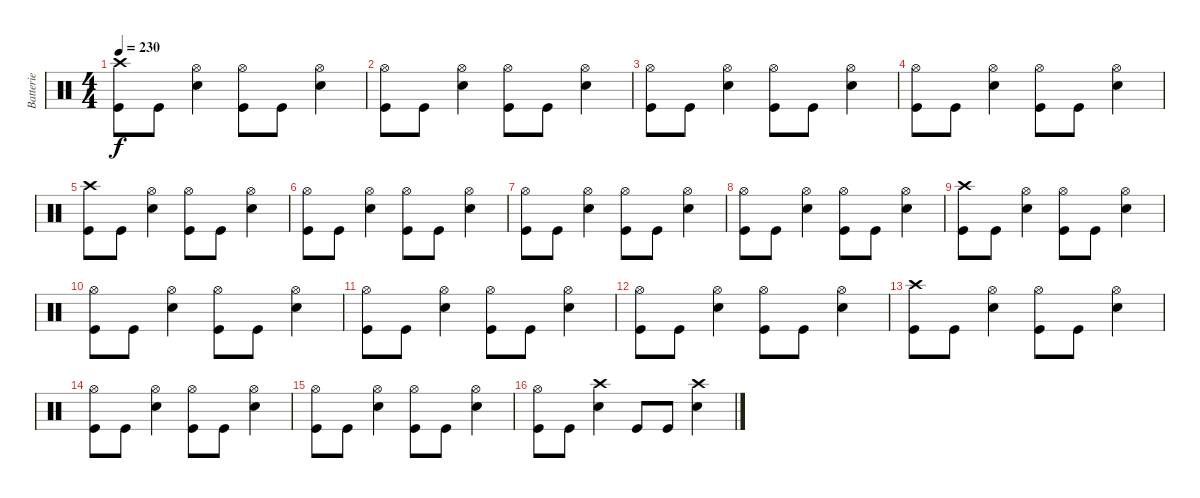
\track ("Batterie" "Batterie") {instrument percussion}
\staff {score}
\articulation defaults
\ts (4 4)
\tempo 230
\clef neutral
\ks c
("Crash high (hit)" "Kick (hit)").8{dy f} "Kick (hit)".8 ("Hi-Hat (open)" "Snare (hit) 2").4 ("Hi-Hat (open)" "Kick (hit)").8 "Kick (hit)".8 ("Hi-Hat (open)" "Snare (hit) 2").4 |
("Hi-Hat (open)" "Kick (hit)").8 "Kick (hit)".8 ("Hi-Hat (open)" "Snare (hit) 2").4 ("Hi-Hat (open)" "Kick (hit)").8 "Kick (hit)".8 ("Hi-Hat (open)" "Snare (hit) 2").4 |
("Hi-Hat (open)" "Kick (hit)").8 "Kick (hit)".8 ("Hi-Hat (open)" "Snare (hit) 2").4 ("Hi-Hat (open)" "Kick (hit)").8 "Kick (hit)".8 ("Hi-Hat (open)" "Snare (hit) 2").4 |
("Hi-Hat (open)" "Kick (hit)").8 "Kick (hit)".8 ("Hi-Hat (open)" "Snare (hit) 2").4 ("Hi-Hat (open)" "Kick (hit)").8 "Kick (hit)".8 ("Hi-Hat (open)" "Snare (hit) 2").4 |
("Crash high (hit)" "Kick (hit)").8 "Kick (hit)".8 ("Hi-Hat (open)" "Snare (hit) 2").4 ("Hi-Hat (open)" "Kick (hit)").8 "Kick (hit)".8 ("Hi-Hat (open)" "Snare (hit) 2").4 |
("Hi-Hat (open)" "Kick (hit)").8 "Kick (hit)".8 ("Hi-Hat (open)" "Snare (hit) 2").4 ("Hi-Hat (open)" "Kick (hit)").8 "Kick (hit)".8 ("Hi-Hat (open)" "Snare (hit) 2").4 |
("Hi-Hat (open)" "Kick (hit)").8 "Kick (hit)".8 ("Hi-Hat (open)" "Snare (hit) 2").4 ("Hi-Hat (open)" "Kick (hit)").8 "Kick (hit)".8 ("Hi-Hat (open)" "Snare (hit) 2").4 |
("Hi-Hat (open)" "Kick (hit)").8 "Kick (hit)".8 ("Hi-Hat (open)" "Snare (hit) 2").4 ("Hi-Hat (open)" "Kick (hit)").8 "Kick (hit)".8 ("Hi-Hat (open)" "Snare (hit) 2").4 |
("Crash high (hit)" "Kick (hit)").8 "Kick (hit)".8 ("Hi-Hat (open)" "Snare (hit) 2").4 ("Hi-Hat (open)" "Kick (hit)").8 "Kick (hit)".8 ("Hi-Hat (open)" "Snare (hit) 2").4 |
("Hi-Hat (open)" "Kick (hit)").8 "Kick (hit)".8 ("Hi-Hat (open)" "Snare (hit) 2").4 ("Hi-Hat (open)" "Kick (hit)").8 "Kick (hit)".8 ("Hi-Hat (open)" "Snare (hit) 2").4 |
("Hi-Hat (open)" "Kick (hit)").8 "Kick (hit)".8 ("Hi-Hat (open)" "Snare (hit) 2").4 ("Hi-Hat (open)" "Kick (hit)").8 "Kick (hit)".8 ("Hi-Hat (open)" "Snare (hit) 2").4 |
("Hi-Hat (open)" "Kick (hit)").8 "Kick (hit)".8 ("Hi-Hat (open)" "Snare (hit) 2").4 ("Hi-Hat (open)" "Kick (hit)").8 "Kick (hit)".8 ("Hi-Hat (open)" "Snare (hit) 2").4 |
("Crash high (hit)" "Kick (hit)").8 "Kick (hit)".8 ("Hi-Hat (open)" "Snare (hit) 2").4 ("Hi-Hat (open)" "Kick (hit)").8 "Kick (hit)".8 ("Hi-Hat (open)" "Snare (hit) 2").4 |
("Hi-Hat (open)" "Kick (hit)").8 "Kick (hit)".8 ("Hi-Hat (open)" "Snare (hit) 2").4 ("Hi-Hat (open)" "Kick (hit)").8 "Kick (hit)".8 ("Hi-Hat (open)" "Snare (hit) 2").4 |
("Hi-Hat (open)" "Kick (hit)").8 "Kick (hit)".8 ("Hi-Hat (open)" "Snare (hit) 2").4 ("Hi-Hat (open)" "Kick (hit)").8 "Kick (hit)".8 ("Hi-Hat (open)" "Snare (hit) 2").4 |
("Hi-Hat (open)" "Kick (hit)").8 "Kick (hit)".8 ("Crash high (hit)" "Snare (hit) 2").4 "Kick (hit)".8 "Kick (hit)".8 ("Crash high (hit)" "Snare (hit) 2").4
